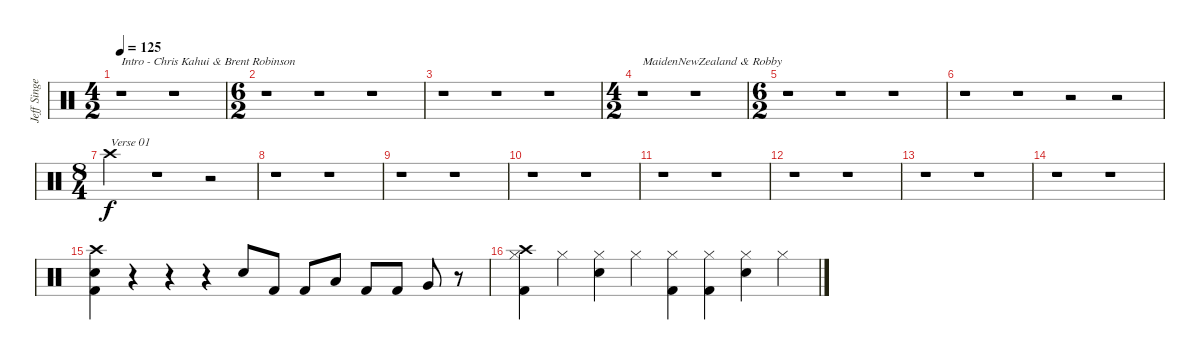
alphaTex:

\track ("Jeff Singer" "Jeff Singe") {instrument percussion}
\staff {score}
\articulation defaults
\ts (4 2)
\tempo 125
\clef neutral
\ks c
r.1{txt "Intro - Chris Kahui & Brent Robinson" dy f} r.1 |
\ts (6 2)
r.1 r.1 r.1 |
r.1 r.1 r.1 |
\ts (4 2)
r.1{txt "MaidenNewZealand & Robby"} r.1 |
\ts (6 2)
r.1 r.1 r.1 |
r.1 r.1 r.2 r.2 |
\ts (8 4)
"Crash high (hit)"{tr (49 16)}.2{txt "Verse 01"} r.1 r.2 |
r.1 r.1 |
r.1 r.1 |
r.1 r.1 |
r.1 r.1 |
r.1 r.1 |
r.1 r.1 |
r.1 r.1 |
("Kick (hit) 2" "Snare (hit) 2" "Crash high (hit)").4 r.4 r.4 r.4 "Snare (hit) 2".8 "Kick (hit) 2".8 "Kick (hit) 2".8 "Low Tom (hit)".8 "Kick (hit) 2".8 "Kick (hit) 2".8 "Very Low Tom (hit)".8 r.8 |
("Hi-Hat (closed)" "Kick (hit) 2" "Crash high (hit)").4 "Hi-Hat (closed)".4 ("Hi-Hat (closed)" "Snare (hit) 2").4 "Hi-Hat (closed)".4 ("Hi-Hat (closed)" "Kick (hit) 2").4 ("Hi-Hat (closed)" "Kick (hit) 2").4 ("Hi-Hat (closed)" "Snare (hit) 2").4 "Hi-Hat (closed)".4
